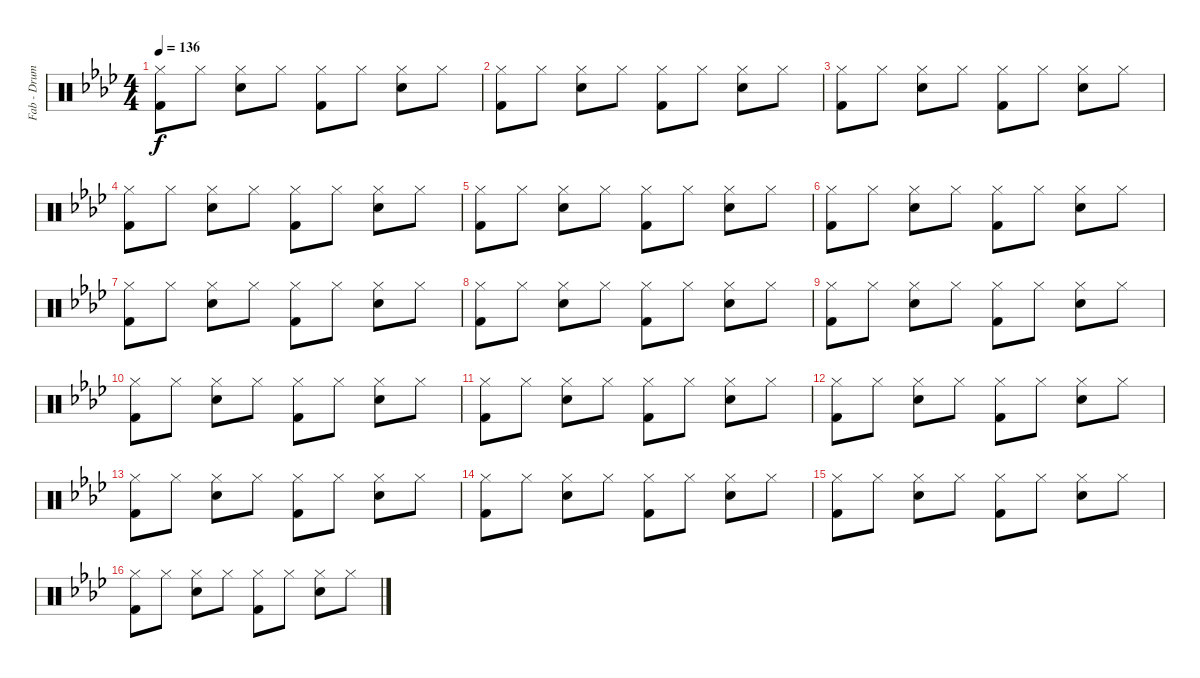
\track ("Fab - Drums MIDI" "Fab - Drum") {instrument percussion}
\staff {score}
\articulation defaults
\ts (4 4)
\tempo 136
\clef neutral
\ks ab
("Hi-Hat (closed)" "Kick (hit) 2").8{dy f} "Hi-Hat (closed)".8 ("Hi-Hat (closed)" "Snare (hit) 2").8 "Hi-Hat (closed)".8 ("Hi-Hat (closed)" "Kick (hit) 2").8 "Hi-Hat (closed)".8 ("Hi-Hat (closed)" "Snare (hit) 2").8 "Hi-Hat (closed)".8 |
("Hi-Hat (closed)" "Kick (hit) 2").8 "Hi-Hat (closed)".8 ("Hi-Hat (closed)" "Snare (hit) 2").8 "Hi-Hat (closed)".8 ("Hi-Hat (closed)" "Kick (hit) 2").8 "Hi-Hat (closed)".8 ("Hi-Hat (closed)" "Snare (hit) 2").8 "Hi-Hat (closed)".8 |
("Hi-Hat (closed)" "Kick (hit) 2").8 "Hi-Hat (closed)".8 ("Hi-Hat (closed)" "Snare (hit) 2").8 "Hi-Hat (closed)".8 ("Hi-Hat (closed)" "Kick (hit) 2").8 "Hi-Hat (closed)".8 ("Hi-Hat (closed)" "Snare (hit) 2").8 "Hi-Hat (closed)".8 |
("Hi-Hat (closed)" "Kick (hit) 2").8 "Hi-Hat (closed)".8 ("Hi-Hat (closed)" "Snare (hit) 2").8 "Hi-Hat (closed)".8 ("Hi-Hat (closed)" "Kick (hit) 2").8 "Hi-Hat (closed)".8 ("Hi-Hat (closed)" "Snare (hit) 2").8 "Hi-Hat (closed)".8 |
("Hi-Hat (closed)" "Kick (hit) 2").8 "Hi-Hat (closed)".8 ("Hi-Hat (closed)" "Snare (hit) 2").8 "Hi-Hat (closed)".8 ("Hi-Hat (closed)" "Kick (hit) 2").8 "Hi-Hat (closed)".8 ("Hi-Hat (closed)" "Snare (hit) 2").8 "Hi-Hat (closed)".8 |
("Hi-Hat (closed)" "Kick (hit) 2").8 "Hi-Hat (closed)".8 ("Hi-Hat (closed)" "Snare (hit) 2").8 "Hi-Hat (closed)".8 ("Hi-Hat (closed)" "Kick (hit) 2").8 "Hi-Hat (closed)".8 ("Hi-Hat (closed)" "Snare (hit) 2").8 "Hi-Hat (closed)".8 |
("Hi-Hat (closed)" "Kick (hit) 2").8 "Hi-Hat (closed)".8 ("Hi-Hat (closed)" "Snare (hit) 2").8 "Hi-Hat (closed)".8 ("Hi-Hat (closed)" "Kick (hit) 2").8 "Hi-Hat (closed)".8 ("Hi-Hat (closed)" "Snare (hit) 2").8 "Hi-Hat (closed)".8 |
("Hi-Hat (closed)" "Kick (hit) 2").8 "Hi-Hat (closed)".8 ("Hi-Hat (closed)" "Snare (hit) 2").8 "Hi-Hat (closed)".8 ("Hi-Hat (closed)" "Kick (hit) 2").8 "Hi-Hat (closed)".8 ("Hi-Hat (closed)" "Snare (hit) 2").8 "Hi-Hat (closed)".8 |
("Hi-Hat (closed)" "Kick (hit) 2").8 "Hi-Hat (closed)".8 ("Hi-Hat (closed)" "Snare (hit) 2").8 "Hi-Hat (closed)".8 ("Hi-Hat (closed)" "Kick (hit) 2").8 "Hi-Hat (closed)".8 ("Hi-Hat (closed)" "Snare (hit) 2").8 "Hi-Hat (closed)".8 |
("Hi-Hat (closed)" "Kick (hit) 2").8 "Hi-Hat (closed)".8 ("Hi-Hat (closed)" "Snare (hit) 2").8 "Hi-Hat (closed)".8 ("Hi-Hat (closed)" "Kick (hit) 2").8 "Hi-Hat (closed)".8 ("Hi-Hat (closed)" "Snare (hit) 2").8 "Hi-Hat (closed)".8 |
("Hi-Hat (closed)" "Kick (hit) 2").8 "Hi-Hat (closed)".8 ("Hi-Hat (closed)" "Snare (hit) 2").8 "Hi-Hat (closed)".8 ("Hi-Hat (closed)" "Kick (hit) 2").8 "Hi-Hat (closed)".8 ("Hi-Hat (closed)" "Snare (hit) 2").8 "Hi-Hat (closed)".8 |
("Hi-Hat (closed)" "Kick (hit) 2").8 "Hi-Hat (closed)".8 ("Hi-Hat (closed)" "Snare (hit) 2").8 "Hi-Hat (closed)".8 ("Hi-Hat (closed)" "Kick (hit) 2").8 "Hi-Hat (closed)".8 ("Hi-Hat (closed)" "Snare (hit) 2").8 "Hi-Hat (closed)".8 |
("Hi-Hat (closed)" "Kick (hit) 2").8 "Hi-Hat (closed)".8 ("Hi-Hat (closed)" "Snare (hit) 2").8 "Hi-Hat (closed)".8 ("Hi-Hat (closed)" "Kick (hit) 2").8 "Hi-Hat (closed)".8 ("Hi-Hat (closed)" "Snare (hit) 2").8 "Hi-Hat (closed)".8 |
("Hi-Hat (closed)" "Kick (hit) 2").8 "Hi-Hat (closed)".8 ("Hi-Hat (closed)" "Snare (hit) 2").8 "Hi-Hat (closed)".8 ("Hi-Hat (closed)" "Kick (hit) 2").8 "Hi-Hat (closed)".8 ("Hi-Hat (closed)" "Snare (hit) 2").8 "Hi-Hat (closed)".8 |
("Hi-Hat (closed)" "Kick (hit) 2").8 "Hi-Hat (closed)".8 ("Hi-Hat (closed)" "Snare (hit) 2").8 "Hi-Hat (closed)".8 ("Hi-Hat (closed)" "Kick (hit) 2").8 "Hi-Hat (closed)".8 ("Hi-Hat (closed)" "Snare (hit) 2").8 "Hi-Hat (closed)".8 |
("Hi-Hat (closed)" "Kick (hit) 2").8 "Hi-Hat (closed)".8 ("Hi-Hat (closed)" "Snare (hit) 2").8 "Hi-Hat (closed)".8 ("Hi-Hat (closed)" "Kick (hit) 2").8 "Hi-Hat (closed)".8 ("Hi-Hat (closed)" "Snare (hit) 2").8 "Hi-Hat (closed)".8
